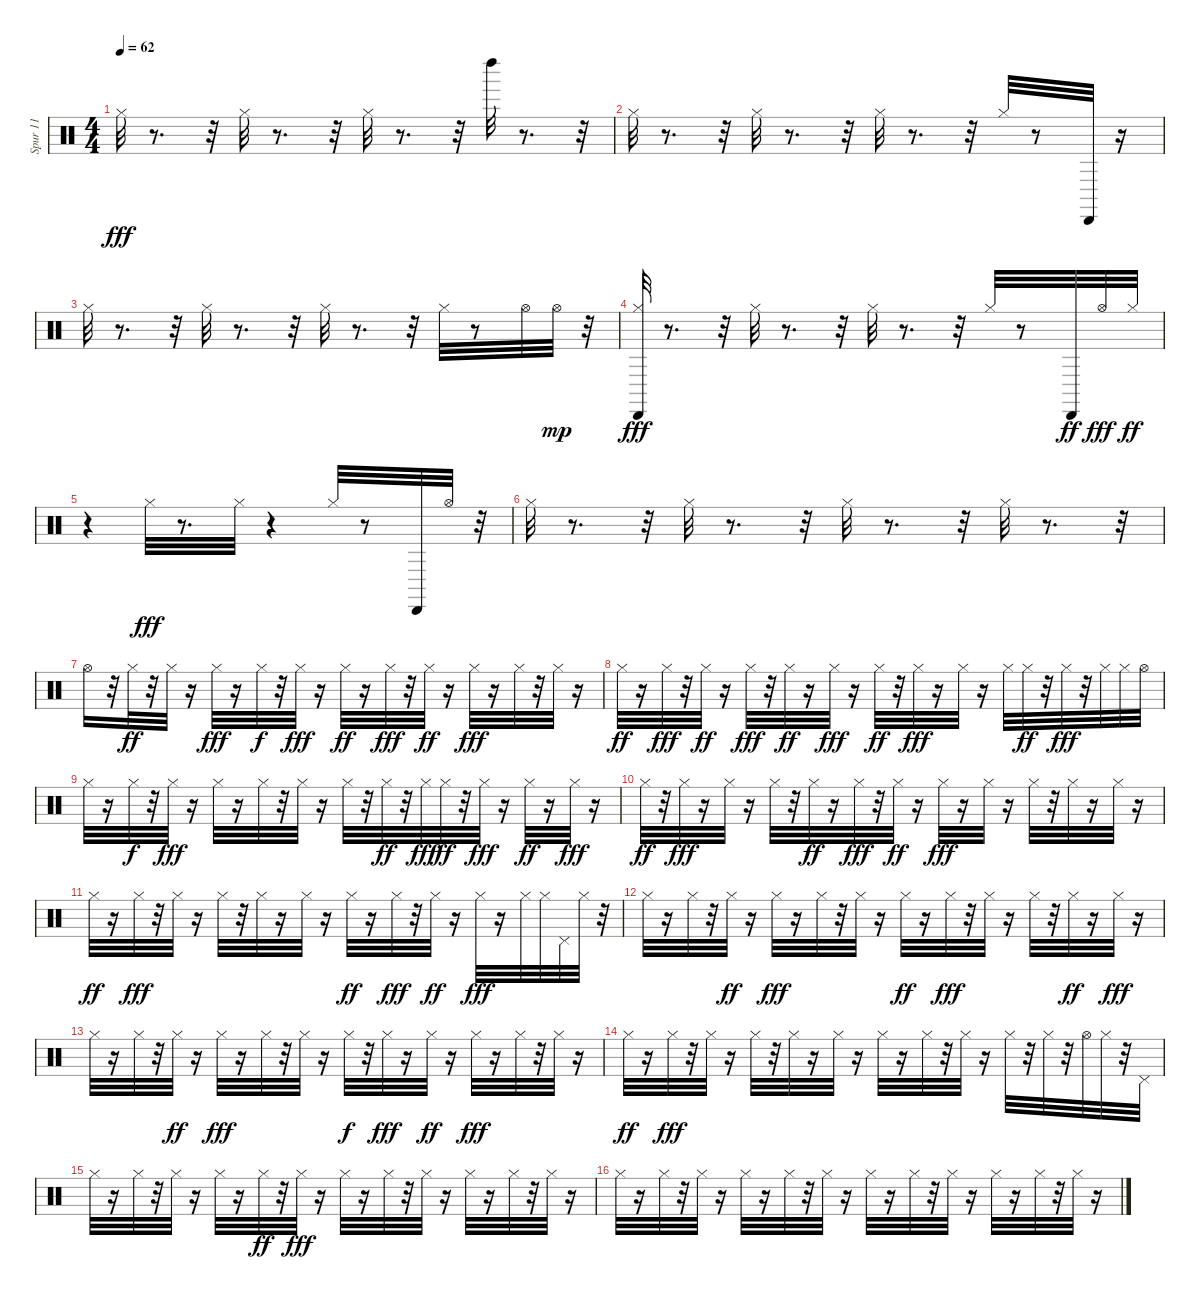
\track ("Spur 11" "Spur 11") {instrument percussion}
\staff {score}
\articulation defaults
\ts (4 4)
\tempo 62
\clef neutral
\ks c "Hi-Hat (closed)".32{dy fff}
r.8{d} r.32 "Hi-Hat (closed)".32 r.8{d} r.32 "Hi-Hat (closed)".32 r.8{d} r.32 "Left Maraca (hit)".32 r.8{d} r.32 |
"Hi-Hat (closed)".32 r.8{d} r.32 "Hi-Hat (closed)".32 r.8{d} r.32 "Hi-Hat (closed)".32 r.8{d} r.32 "Hi-Hat (closed)".32 r.8 "Cabasa (hit)".32 r.16 |
"Hi-Hat (closed)".32 r.8{d} r.32 "Hi-Hat (closed)".32 r.8{d} r.32 "Hi-Hat (closed)".32 r.8{d} r.32 "Hi-Hat (closed)".32 r.8 "Hi-Hat (open)".32 "Hi-Hat (open)".32{dy mp} r.32 |
("Hi-Hat (closed)" "Cabasa (hit)").32{dy fff} r.8{d} r.32 "Hi-Hat (closed)".32 r.8{d} r.32 "Hi-Hat (closed)".32 r.8{d} r.32 "Hi-Hat (closed)".32 r.8 "Cabasa (hit)".32{dy ff} "Hi-Hat (open)".32{dy fff} "Hi-Hat (closed)".32{dy ff} |
r.4 "Hi-Hat (closed)".32{dy fff} r.8{d} "Hi-Hat (closed)".32 r.4 "Hi-Hat (closed)".32 r.8 "Cabasa (hit)".32 "Hi-Hat (open)".32 r.32 |
"Hi-Hat (closed)".32 r.8{d} r.32 "Hi-Hat (closed)".32 r.8{d} r.32 "Hi-Hat (closed)".32 r.8{d} r.32 "Hi-Hat (closed)".32 r.8{d} r.32 |
"Hi-Hat (open)".16 r.32 "Hi-Hat (closed)".32{dy ff} r.32 "Hi-Hat (closed)".32 r.16 "Hi-Hat (closed)".32{dy fff} r.16 "Hi-Hat (closed)".32{dy f} r.32 "Hi-Hat (closed)".32{dy fff} r.16 "Hi-Hat (closed)".32{dy ff} r.16 "Hi-Hat (closed)".32{dy fff} r.32 "Hi-Hat (closed)".32{dy ff} r.16 "Hi-Hat (closed)".32{dy fff} r.16 "Hi-Hat (closed)".32 r.32 "Hi-Hat (closed)".32 r.16 |
"Hi-Hat (closed)".32{dy ff} r.16 "Hi-Hat (closed)".32{dy fff} r.32 "Hi-Hat (closed)".32{dy ff} r.16 "Hi-Hat (closed)".32{dy fff} r.32 "Hi-Hat (closed)".32{dy ff} r.16 "Hi-Hat (closed)".32{dy fff} r.16 "Hi-Hat (closed)".32{dy ff} r.32 "Hi-Hat (closed)".32{dy fff} r.16 "Hi-Hat (closed)".32 r.16 "Hi-Hat (closed)".32 "Hi-Hat (closed)".32{dy ff} r.32 "Hi-Hat (closed)".32{dy fff} r.32 "Hi-Hat (closed)".32 "Hi-Hat (closed)".32 "Hi-Hat (open)".32 |
"Hi-Hat (closed)".32 r.16 "Hi-Hat (closed)".32{dy f} r.32 "Hi-Hat (closed)".32{dy fff} r.16 "Hi-Hat (closed)".32 r.16 "Hi-Hat (closed)".32 r.32 "Hi-Hat (closed)".32 r.16 "Hi-Hat (closed)".32 r.32 "Hi-Hat (closed)".32{dy ff} r.32 "Hi-Hat (closed)".32{dy fff} "Hi-Hat (closed)".32{dy ff} r.32 "Hi-Hat (closed)".32{dy fff} r.16 "Hi-Hat (closed)".32{dy ff} r.16 "Hi-Hat (closed)".32{dy fff} r.16 |
"Hi-Hat (closed)".32{dy ff} r.32 "Hi-Hat (closed)".32{dy fff} r.16 "Hi-Hat (closed)".32 r.16 "Hi-Hat (closed)".32 r.32 "Hi-Hat (closed)".32{dy ff} r.16 "Hi-Hat (closed)".32{dy fff} r.32 "Hi-Hat (closed)".32{dy ff} r.16 "Hi-Hat (closed)".32{dy fff} r.16 "Hi-Hat (closed)".32 r.16 "Hi-Hat (closed)".32 r.32 "Hi-Hat (closed)".32 r.16 "Hi-Hat (closed)".32 r.16 |
"Hi-Hat (closed)".32{dy ff} r.16 "Hi-Hat (closed)".32{dy fff} r.32 "Hi-Hat (closed)".32 r.16 "Hi-Hat (closed)".32 r.32 "Hi-Hat (closed)".32 r.16 "Hi-Hat (closed)".32 r.16 "Hi-Hat (closed)".32{dy ff} r.16 "Hi-Hat (closed)".32{dy fff} r.32 "Hi-Hat (closed)".32{dy ff} r.16 "Hi-Hat (closed)".32{dy fff} r.16 "Hi-Hat (closed)".32 "Hi-Hat (closed)".32 "Pedal Hi-Hat (hit)".32 "Hi-Hat (closed)".32 r.32 |
"Hi-Hat (closed)".32 r.16 "Hi-Hat (closed)".32 r.32 "Hi-Hat (closed)".32{dy ff} r.16 "Hi-Hat (closed)".32{dy fff} r.16 "Hi-Hat (closed)".32 r.32 "Hi-Hat (closed)".32 r.16 "Hi-Hat (closed)".32{dy ff} r.16 "Hi-Hat (closed)".32{dy fff} r.32 "Hi-Hat (closed)".32 r.16 "Hi-Hat (closed)".32 r.32 "Hi-Hat (closed)".32{dy ff} r.16 "Hi-Hat (closed)".32{dy fff} r.16 |
"Hi-Hat (closed)".32 r.16 "Hi-Hat (closed)".32 r.32 "Hi-Hat (closed)".32{dy ff} r.16 "Hi-Hat (closed)".32{dy fff} r.16 "Hi-Hat (closed)".32 r.32 "Hi-Hat (closed)".32 r.16 "Hi-Hat (closed)".32{dy f} r.32 "Hi-Hat (closed)".32{dy fff} r.16 "Hi-Hat (closed)".32{dy ff} r.16 "Hi-Hat (closed)".32{dy fff} r.16 "Hi-Hat (closed)".32 r.32 "Hi-Hat (closed)".32 r.16 |
"Hi-Hat (closed)".32{dy ff} r.16 "Hi-Hat (closed)".32{dy fff} r.32 "Hi-Hat (closed)".32 r.16 "Hi-Hat (closed)".32 r.32 "Hi-Hat (closed)".32 r.16 "Hi-Hat (closed)".32 r.16 "Hi-Hat (closed)".32 r.16 "Hi-Hat (closed)".32 r.32 "Hi-Hat (closed)".32 r.16 "Hi-Hat (closed)".32 r.32 "Hi-Hat (closed)".32 r.32 "Hi-Hat (open)".32 "Hi-Hat (closed)".32 r.32 "Pedal Hi-Hat (hit)".32 |
"Hi-Hat (closed)".32 r.16 "Hi-Hat (closed)".32 r.32 "Hi-Hat (closed)".32 r.16 "Hi-Hat (closed)".32 r.16 "Hi-Hat (closed)".32{dy ff} r.32 "Hi-Hat (closed)".32{dy fff} r.16 "Hi-Hat (closed)".32 r.16 "Hi-Hat (closed)".32 r.32 "Hi-Hat (closed)".32 r.16 "Hi-Hat (closed)".32 r.16 "Hi-Hat (closed)".32 r.32 "Hi-Hat (closed)".32 r.16 |
"Hi-Hat (closed)".32 r.16 "Hi-Hat (closed)".32 r.32 "Hi-Hat (closed)".32 r.16 "Hi-Hat (closed)".32 r.16 "Hi-Hat (closed)".32 r.32 "Hi-Hat (closed)".32 r.16 "Hi-Hat (closed)".32 r.16 "Hi-Hat (closed)".32 r.32 "Hi-Hat (closed)".32 r.16 "Hi-Hat (closed)".32 r.16 "Hi-Hat (closed)".32 r.32 "Hi-Hat (closed)".32 r.16
